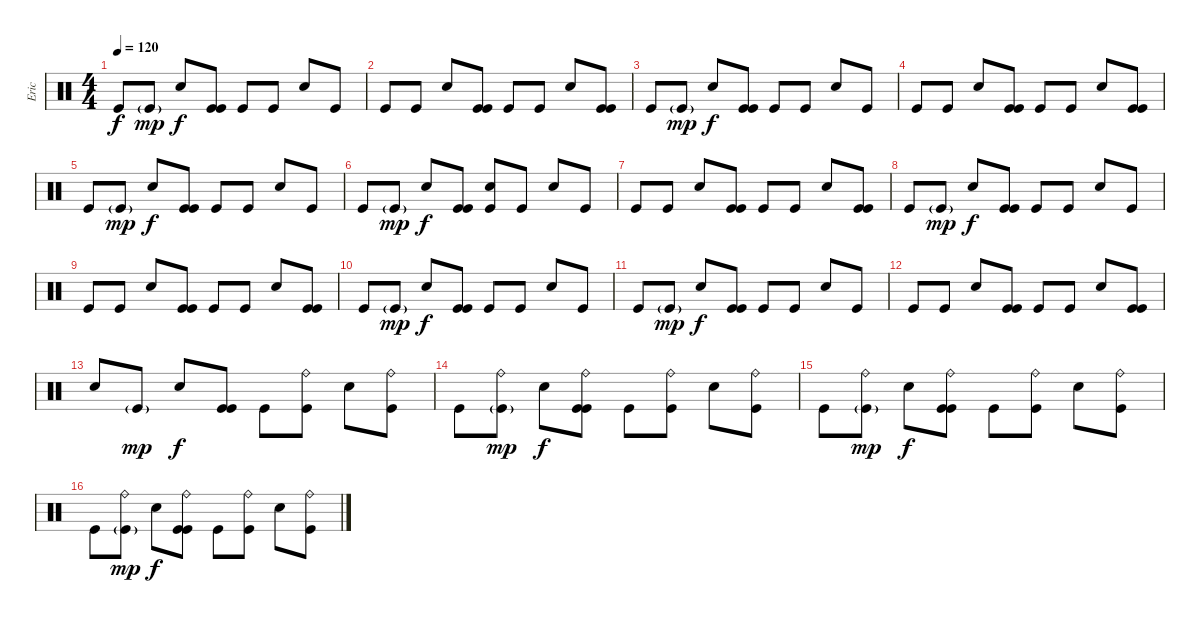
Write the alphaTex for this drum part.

\track ("Eric" "Eric") {instrument percussion}
\staff {score}
\articulation defaults
\ts (4 4)
\tempo 120
\clef neutral
\ks c "Kick (hit)".8{dy f} "Kick (hit)"{g}.8{dy mp} "Electric Snare (hit)".8{dy f}
("Kick (hit)" "Kick (hit)").8 "Kick (hit)".8 "Kick (hit)".8 "Electric Snare (hit)".8 "Kick (hit)".8 |
"Kick (hit)".8 "Kick (hit)".8 "Electric Snare (hit)".8 ("Kick (hit)" "Kick (hit)").8 "Kick (hit)".8 "Kick (hit)".8 "Electric Snare (hit)".8 ("Kick (hit)" "Kick (hit)").8 |
"Kick (hit)".8 "Kick (hit)"{g}.8{dy mp} "Electric Snare (hit)".8{dy f} ("Kick (hit)" "Kick (hit)").8 "Kick (hit)".8 "Kick (hit)".8 "Electric Snare (hit)".8 "Kick (hit)".8 |
"Kick (hit)".8 "Kick (hit)".8 "Electric Snare (hit)".8 ("Kick (hit)" "Kick (hit)").8 "Kick (hit)".8 "Kick (hit)".8 "Electric Snare (hit)".8 ("Kick (hit)" "Kick (hit)").8 |
"Kick (hit)".8 "Kick (hit)"{g}.8{dy mp} "Electric Snare (hit)".8{dy f} ("Kick (hit)" "Kick (hit)").8 "Kick (hit)".8 "Kick (hit)".8 "Electric Snare (hit)".8 "Kick (hit)".8 |
"Kick (hit)".8 "Kick (hit)"{g}.8{dy mp} "Electric Snare (hit)".8{dy f} ("Kick (hit)" "Kick (hit)").8 ("Electric Snare (hit)" "Kick (hit)").8 "Kick (hit)".8 "Electric Snare (hit)".8 "Kick (hit)".8 |
"Kick (hit)".8 "Kick (hit)".8 "Electric Snare (hit)".8 ("Kick (hit)" "Kick (hit)").8 "Kick (hit)".8 "Kick (hit)".8 "Electric Snare (hit)".8 ("Kick (hit)" "Kick (hit)").8 |
"Kick (hit)".8 "Kick (hit)"{g}.8{dy mp} "Electric Snare (hit)".8{dy f} ("Kick (hit)" "Kick (hit)").8 "Kick (hit)".8 "Kick (hit)".8 "Electric Snare (hit)".8 "Kick (hit)".8 |
"Kick (hit)".8 "Kick (hit)".8 "Electric Snare (hit)".8 ("Kick (hit)" "Kick (hit)").8 "Kick (hit)".8 "Kick (hit)".8 "Electric Snare (hit)".8 ("Kick (hit)" "Kick (hit)").8 |
"Kick (hit)".8 "Kick (hit)"{g}.8{dy mp} "Electric Snare (hit)".8{dy f} ("Kick (hit)" "Kick (hit)").8 "Kick (hit)".8 "Kick (hit)".8 "Electric Snare (hit)".8 "Kick (hit)".8 |
"Kick (hit)".8 "Kick (hit)"{g}.8{dy mp} "Electric Snare (hit)".8{dy f} ("Kick (hit)" "Kick (hit)").8 "Kick (hit)".8 "Kick (hit)".8 "Electric Snare (hit)".8 "Kick (hit)".8 |
"Kick (hit)".8 "Kick (hit)".8 "Electric Snare (hit)".8 ("Kick (hit)" "Kick (hit)").8 "Kick (hit)".8 "Kick (hit)".8 "Electric Snare (hit)".8 ("Kick (hit)" "Kick (hit)").8 |
"Electric Snare (hit)".8 "Kick (hit)"{g}.8{dy mp} "Electric Snare (hit)".8{dy f} ("Kick (hit)" "Kick (hit)").8 "Kick (hit)".8 ("Kick (hit)" "Ride (bell)").8 "Electric Snare (hit)".8 ("Kick (hit)" "Ride (bell)").8 |
"Kick (hit)".8 ("Kick (hit)"{g} "Ride (bell)").8{dy mp} "Electric Snare (hit)".8{dy f} ("Kick (hit)" "Kick (hit)" "Ride (bell)").8 "Kick (hit)".8 ("Kick (hit)" "Ride (bell)").8 "Electric Snare (hit)".8 ("Kick (hit)" "Ride (bell)").8 |
"Kick (hit)".8 ("Kick (hit)"{g} "Ride (bell)").8{dy mp} "Electric Snare (hit)".8{dy f} ("Kick (hit)" "Kick (hit)" "Ride (bell)").8 "Kick (hit)".8 ("Kick (hit)" "Ride (bell)").8 "Electric Snare (hit)".8 ("Kick (hit)" "Ride (bell)").8 |
"Kick (hit)".8 ("Kick (hit)"{g} "Ride (bell)").8{dy mp} "Electric Snare (hit)".8{dy f} ("Kick (hit)" "Kick (hit)" "Ride (bell)").8 "Kick (hit)".8 ("Kick (hit)" "Ride (bell)").8 "Electric Snare (hit)".8 ("Kick (hit)" "Ride (bell)").8
